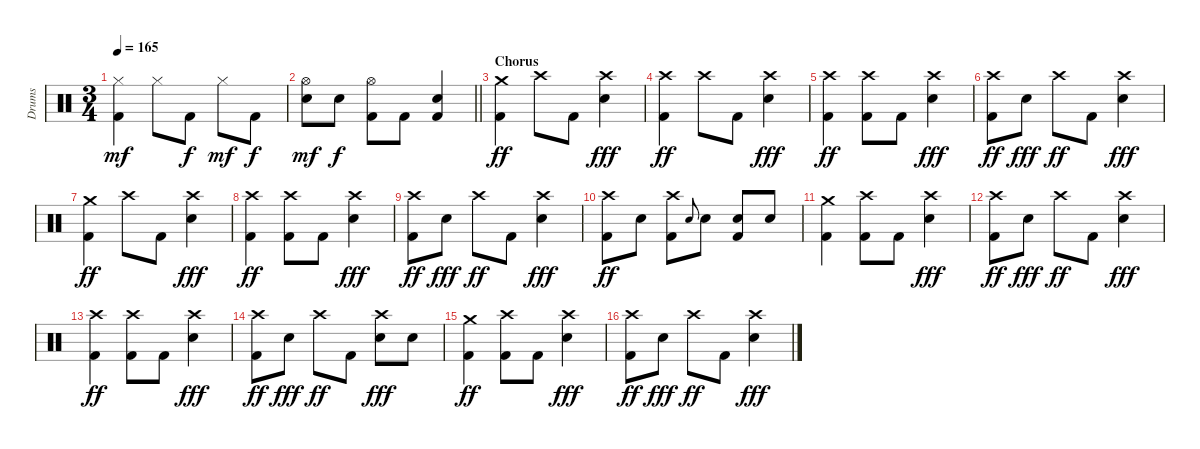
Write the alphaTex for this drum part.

\track ("Drums" "Drums") {instrument percussion}
\staff {score}
\articulation defaults
\ts (3 4)
\tempo 165
\clef neutral
\ks c
("Hi-Hat (closed)" "Kick (hit) 2").4{dy mf} "Hi-Hat (closed)".8 "Kick (hit) 2".8{dy f} "Hi-Hat (closed)".8{dy mf} "Kick (hit) 2".8{dy f} |
\barLineRight lightlight
("Hi-Hat (open)" "Snare (hit) 2").8{dy mf} "Snare (hit) 2".8{dy f} ("Hi-Hat (open)" "Kick (hit) 2").8 "Kick (hit) 2".8 ("Snare (hit) 2" "Kick (hit) 2").4 |
\section ("" "Chorus")
("Crash medium (hit)" "Kick (hit) 2").4{dy ff} "Crash high (hit)".8 "Kick (hit) 2".8 ("Crash high (hit)" "Snare (hit) 2").4{dy fff} |
("Crash high (hit)" "Kick (hit) 2").4{dy ff} "Crash high (hit)".8 "Kick (hit) 2".8 ("Crash high (hit)" "Snare (hit) 2").4{dy fff} |
("Crash high (hit)" "Kick (hit) 2").4{dy ff} ("Crash high (hit)" "Kick (hit) 2").8 "Kick (hit) 2".8 ("Crash high (hit)" "Snare (hit) 2").4{dy fff} |
("Crash high (hit)" "Kick (hit) 2").8{dy ff} "Snare (hit) 2".8{dy fff} "Crash high (hit)".8{dy ff} "Kick (hit) 2".8 ("Crash high (hit)" "Snare (hit) 2").4{dy fff} |
("Crash medium (hit)" "Kick (hit) 2").4{dy ff} "Crash high (hit)".8 "Kick (hit) 2".8 ("Crash high (hit)" "Snare (hit) 2").4{dy fff} |
("Crash high (hit)" "Kick (hit) 2").4{dy ff} ("Crash high (hit)" "Kick (hit) 2").8 "Kick (hit) 2".8 ("Crash high (hit)" "Snare (hit) 2").4{dy fff} |
("Crash high (hit)" "Kick (hit) 2").8{dy ff} "Snare (hit) 2".8{dy fff} "Crash high (hit)".8{dy ff} "Kick (hit) 2".8 ("Crash high (hit)" "Snare (hit) 2").4{dy fff} |
("Crash high (hit)" "Kick (hit) 2").8{dy ff} "Snare (hit) 2".8 ("Crash high (hit)" "Kick (hit) 2").8 "Snare (hit) 2".8{gr onbeat} "Snare (hit) 2".8 ("Snare (hit) 2" "Kick (hit) 2").8 "Snare (hit) 2".8 |
("Crash medium (hit)" "Kick (hit) 2").4 ("Crash high (hit)" "Kick (hit) 2").8 "Kick (hit) 2".8 ("Crash high (hit)" "Snare (hit) 2").4{dy fff} |
("Crash high (hit)" "Kick (hit) 2").8{dy ff} "Snare (hit) 2".8{dy fff} "Crash high (hit)".8{dy ff} "Kick (hit) 2".8 ("Crash high (hit)" "Snare (hit) 2").4{dy fff} |
("Crash high (hit)" "Kick (hit) 2").4{dy ff} ("Crash high (hit)" "Kick (hit) 2").8 "Kick (hit) 2".8 ("Crash high (hit)" "Snare (hit) 2").4{dy fff} |
("Crash high (hit)" "Kick (hit) 2").8{dy ff} "Snare (hit) 2".8{dy fff} "Crash high (hit)".8{dy ff} "Kick (hit) 2".8 ("Crash high (hit)" "Snare (hit) 2").8{dy fff} "Snare (hit) 2".8 |
("Crash medium (hit)" "Kick (hit) 2").4{dy ff} ("Crash high (hit)" "Kick (hit) 2").8 "Kick (hit) 2".8 ("Crash high (hit)" "Snare (hit) 2").4{dy fff} |
("Crash high (hit)" "Kick (hit) 2").8{dy ff} "Snare (hit) 2".8{dy fff} "Crash high (hit)".8{dy ff} "Kick (hit) 2".8 ("Crash high (hit)" "Snare (hit) 2").4{dy fff}
